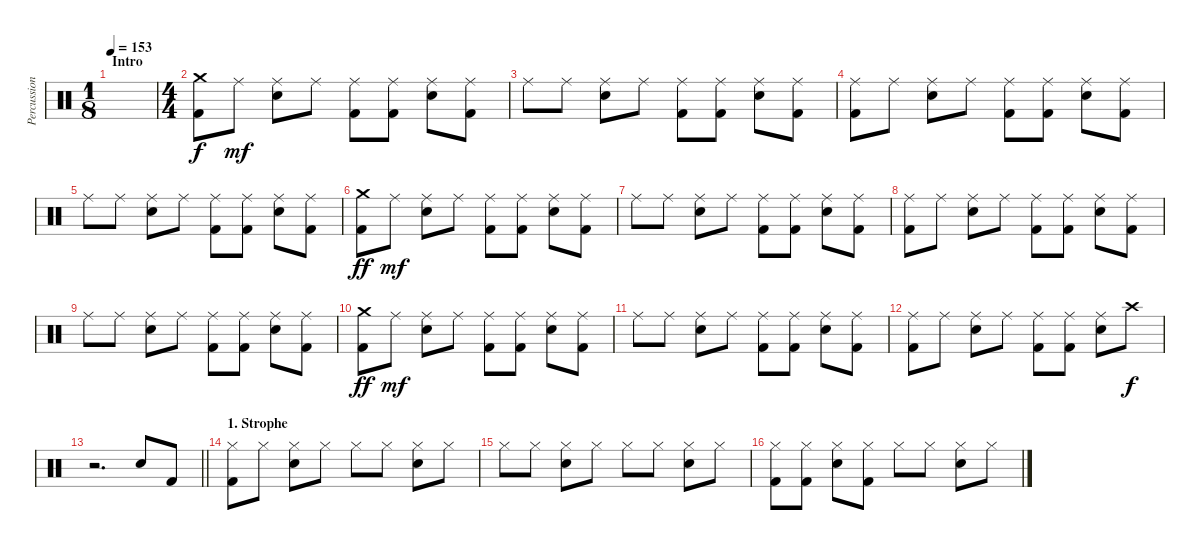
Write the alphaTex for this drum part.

\track ("Percussion" "Percussion") {instrument percussion}
\staff {score}
\articulation defaults
\ts (1 8)
\section ("" "Intro")
\tempo 153
\clef neutral
\ks c
|
\ts (4 4)
("Crash medium (hit)" "Kick (hit) 2").8 "Ride (middle)".8{dy mf} ("Ride (middle)" "Electric Snare (hit)").8 "Ride (middle)".8 ("Ride (middle)" "Kick (hit) 2").8 ("Ride (middle)" "Kick (hit) 2").8 ("Ride (middle)" "Electric Snare (hit)").8 ("Ride (middle)" "Kick (hit) 2").8 |
"Ride (middle)".8 "Ride (middle)".8 ("Ride (middle)" "Electric Snare (hit)").8 "Ride (middle)".8 ("Ride (middle)" "Kick (hit) 2").8 ("Ride (middle)" "Kick (hit) 2").8 ("Ride (middle)" "Electric Snare (hit)").8 ("Ride (middle)" "Kick (hit) 2").8 |
("Ride (middle)" "Kick (hit) 2").8 "Ride (middle)".8 ("Ride (middle)" "Electric Snare (hit)").8 "Ride (middle)".8 ("Ride (middle)" "Kick (hit) 2").8 ("Ride (middle)" "Kick (hit) 2").8 ("Ride (middle)" "Electric Snare (hit)").8 ("Ride (middle)" "Kick (hit) 2").8 |
"Ride (middle)".8 "Ride (middle)".8 ("Ride (middle)" "Electric Snare (hit)").8 "Ride (middle)".8 ("Ride (middle)" "Kick (hit) 2").8 ("Ride (middle)" "Kick (hit) 2").8 ("Ride (middle)" "Electric Snare (hit)").8 ("Ride (middle)" "Kick (hit) 2").8 |
("Crash medium (hit)" "Kick (hit) 2").8{dy ff} "Ride (middle)".8{dy mf} ("Ride (middle)" "Electric Snare (hit)").8 "Ride (middle)".8 ("Ride (middle)" "Kick (hit) 2").8 ("Ride (middle)" "Kick (hit) 2").8 ("Ride (middle)" "Electric Snare (hit)").8 ("Ride (middle)" "Kick (hit) 2").8 |
"Ride (middle)".8 "Ride (middle)".8 ("Ride (middle)" "Electric Snare (hit)").8 "Ride (middle)".8 ("Ride (middle)" "Kick (hit) 2").8 ("Ride (middle)" "Kick (hit) 2").8 ("Ride (middle)" "Electric Snare (hit)").8 ("Ride (middle)" "Kick (hit) 2").8 |
("Ride (middle)" "Kick (hit) 2").8 "Ride (middle)".8 ("Ride (middle)" "Electric Snare (hit)").8 "Ride (middle)".8 ("Ride (middle)" "Kick (hit) 2").8 ("Ride (middle)" "Kick (hit) 2").8 ("Ride (middle)" "Electric Snare (hit)").8 ("Ride (middle)" "Kick (hit) 2").8 |
"Ride (middle)".8 "Ride (middle)".8 ("Ride (middle)" "Electric Snare (hit)").8 "Ride (middle)".8 ("Ride (middle)" "Kick (hit) 2").8 ("Ride (middle)" "Kick (hit) 2").8 ("Ride (middle)" "Electric Snare (hit)").8 ("Ride (middle)" "Kick (hit) 2").8 |
("Crash medium (hit)" "Kick (hit) 2").8{dy ff} "Ride (middle)".8{dy mf} ("Ride (middle)" "Electric Snare (hit)").8 "Ride (middle)".8 ("Ride (middle)" "Kick (hit) 2").8 ("Ride (middle)" "Kick (hit) 2").8 ("Ride (middle)" "Electric Snare (hit)").8 ("Ride (middle)" "Kick (hit) 2").8 |
"Ride (middle)".8 "Ride (middle)".8 ("Ride (middle)" "Electric Snare (hit)").8 "Ride (middle)".8 ("Ride (middle)" "Kick (hit) 2").8 ("Ride (middle)" "Kick (hit) 2").8 ("Ride (middle)" "Electric Snare (hit)").8 ("Ride (middle)" "Kick (hit) 2").8 |
("Ride (middle)" "Kick (hit) 2").8 "Ride (middle)".8 ("Ride (middle)" "Electric Snare (hit)").8 "Ride (middle)".8 ("Ride (middle)" "Kick (hit) 2").8 ("Ride (middle)" "Kick (hit) 2").8 ("Ride (middle)" "Electric Snare (hit)").8 "Crash high (hit)".8{dy f} |
\barLineRight lightlight
r.2{d} "Electric Snare (hit)".8 "Kick (hit) 2".8 |
\section ("" "1. Strophe")
("Hi-Hat (closed)" "Kick (hit) 2").8 "Hi-Hat (closed)".8 ("Hi-Hat (closed)" "Electric Snare (hit)").8 "Hi-Hat (closed)".8 "Hi-Hat (closed)".8 "Hi-Hat (closed)".8 ("Hi-Hat (closed)" "Electric Snare (hit)").8 "Hi-Hat (closed)".8 |
"Hi-Hat (closed)".8 "Hi-Hat (closed)".8 ("Hi-Hat (closed)" "Electric Snare (hit)").8 "Hi-Hat (closed)".8 "Hi-Hat (closed)".8 "Hi-Hat (closed)".8 ("Hi-Hat (closed)" "Electric Snare (hit)").8 "Hi-Hat (closed)".8 |
("Hi-Hat (closed)" "Kick (hit) 2").8 ("Hi-Hat (closed)" "Kick (hit) 2").8 ("Hi-Hat (closed)" "Electric Snare (hit)").8 ("Hi-Hat (closed)" "Kick (hit) 2").8 "Hi-Hat (closed)".8 "Hi-Hat (closed)".8 ("Hi-Hat (closed)" "Electric Snare (hit)").8 "Hi-Hat (closed)".8
